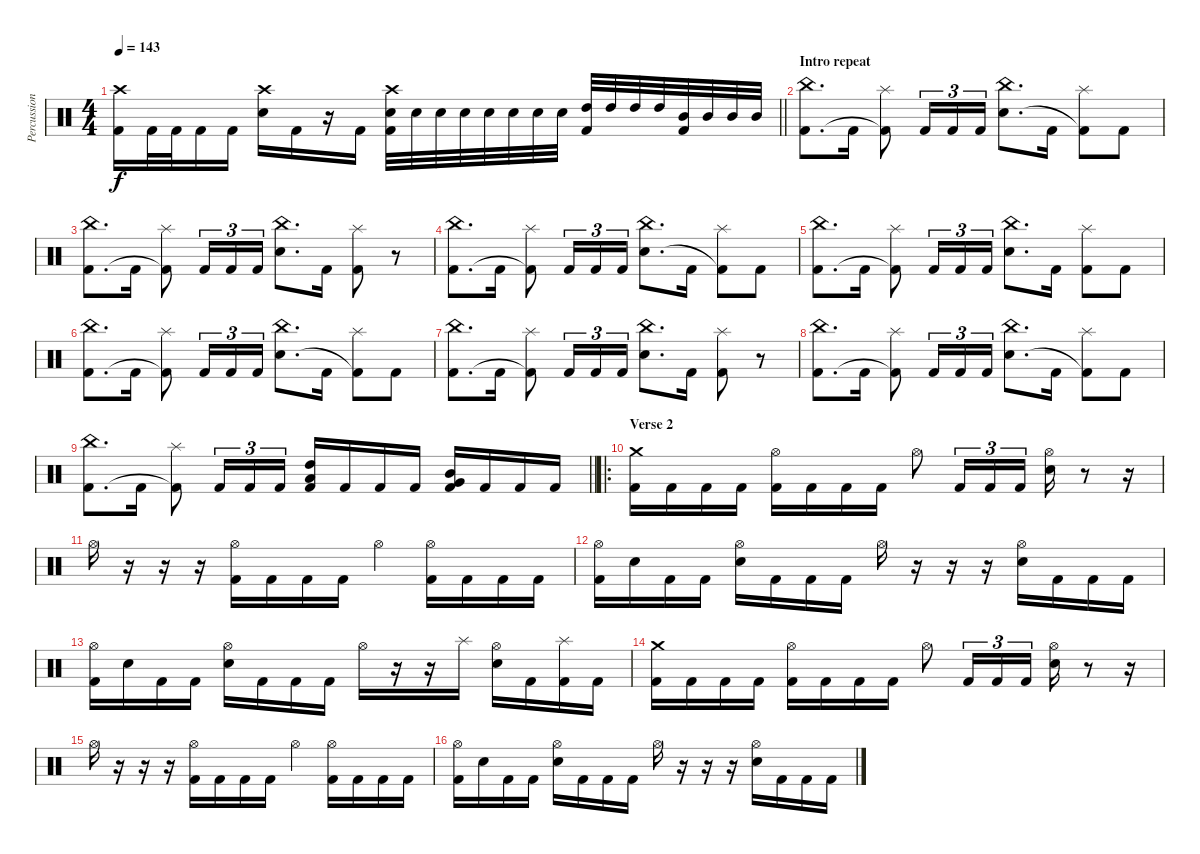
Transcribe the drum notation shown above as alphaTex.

\track ("Percussion" "Percussion") {instrument percussion}
\staff {score}
\articulation defaults
\ts (4 4)
\tempo 143
\clef neutral
\barLineRight lightlight
\ks c
("Crash high (hit)" "Kick (hit) 2").16{dy f} "Kick (hit) 2".32 "Kick (hit) 2".32 "Kick (hit) 2".16 "Kick (hit) 2".16 ("Crash high (hit)" "Electric Snare (hit)").16 "Kick (hit) 2".16 r.16 "Kick (hit) 2".16 ("Crash high (hit)" "Electric Snare (hit)" "Kick (hit) 2").32 "Electric Snare (hit)".32 "Electric Snare (hit)".32 "Electric Snare (hit)".32 "Electric Snare (hit)".32 "Electric Snare (hit)".32 "Electric Snare (hit)".32 "Electric Snare (hit)".32 ("High Tom (hit)" "Kick (hit) 2").32 "High Tom (hit)".32 "High Tom (hit)".32 "High Tom (hit)".32 ("Mid Tom (hit)" "Kick (hit) 2").32 "Mid Tom (hit)".32 "Mid Tom (hit)".32 "Mid Tom (hit)".32 |
\section ("" "Intro repeat")
("China (hit)" "Kick (hit) 2").8{d} "Kick (hit) 2".16 ("Splash (hit)" "Kick (hit) 2"{t}).8 "Kick (hit) 2".16{tu (3 2)} "Kick (hit) 2".16{tu (3 2)} "Kick (hit) 2".16{tu (3 2)} ("China (hit)" "Electric Snare (hit)").8{d} "Kick (hit) 2".16 ("Splash (hit)" "Kick (hit) 2"{t}).8 "Kick (hit) 2".8 |
("China (hit)" "Kick (hit) 2").8{d} "Kick (hit) 2".16 ("Splash (hit)" "Kick (hit) 2"{t}).8 "Kick (hit) 2".16{tu (3 2)} "Kick (hit) 2".16{tu (3 2)} "Kick (hit) 2".16{tu (3 2)} ("China (hit)" "Electric Snare (hit)").8{d} "Kick (hit) 2".16 ("Splash (hit)" "Kick (hit) 2").8 r.8 |
("China (hit)" "Kick (hit) 2").8{d} "Kick (hit) 2".16 ("Splash (hit)" "Kick (hit) 2"{t}).8 "Kick (hit) 2".16{tu (3 2)} "Kick (hit) 2".16{tu (3 2)} "Kick (hit) 2".16{tu (3 2)} ("China (hit)" "Electric Snare (hit)").8{d} "Kick (hit) 2".16 ("Splash (hit)" "Kick (hit) 2"{t}).8 "Kick (hit) 2".8 |
("China (hit)" "Kick (hit) 2").8{d} "Kick (hit) 2".16 ("Splash (hit)" "Kick (hit) 2"{t}).8 "Kick (hit) 2".16{tu (3 2)} "Kick (hit) 2".16{tu (3 2)} "Kick (hit) 2".16{tu (3 2)} ("China (hit)" "Electric Snare (hit)").8{d} "Kick (hit) 2".16 ("Splash (hit)" "Kick (hit) 2").8 "Kick (hit) 2".8 |
("China (hit)" "Kick (hit) 2").8{d} "Kick (hit) 2".16 ("Splash (hit)" "Kick (hit) 2"{t}).8 "Kick (hit) 2".16{tu (3 2)} "Kick (hit) 2".16{tu (3 2)} "Kick (hit) 2".16{tu (3 2)} ("China (hit)" "Electric Snare (hit)").8{d} "Kick (hit) 2".16 ("Splash (hit)" "Kick (hit) 2"{t}).8 "Kick (hit) 2".8 |
("China (hit)" "Kick (hit) 2").8{d} "Kick (hit) 2".16 ("Splash (hit)" "Kick (hit) 2"{t}).8 "Kick (hit) 2".16{tu (3 2)} "Kick (hit) 2".16{tu (3 2)} "Kick (hit) 2".16{tu (3 2)} ("China (hit)" "Electric Snare (hit)").8{d} "Kick (hit) 2".16 ("Splash (hit)" "Kick (hit) 2").8 r.8 |
("China (hit)" "Kick (hit) 2").8{d} "Kick (hit) 2".16 ("Splash (hit)" "Kick (hit) 2"{t}).8 "Kick (hit) 2".16{tu (3 2)} "Kick (hit) 2".16{tu (3 2)} "Kick (hit) 2".16{tu (3 2)} ("China (hit)" "Electric Snare (hit)").8{d} "Kick (hit) 2".16 ("Splash (hit)" "Kick (hit) 2"{t}).8 "Kick (hit) 2".8 |
\barLineRight lightlight
("China (hit)" "Kick (hit) 2").8{d} "Kick (hit) 2".16 ("Splash (hit)" "Kick (hit) 2"{t}).8 "Kick (hit) 2".16{tu (3 2)} "Kick (hit) 2".16{tu (3 2)} "Kick (hit) 2".16{tu (3 2)} ("High Tom (hit)" "Low Tom (hit)" "Kick (hit) 2").16 "Kick (hit) 2".16 "Kick (hit) 2".16 "Kick (hit) 2".16 ("Mid Tom (hit)" "Very Low Tom (hit)" "Kick (hit) 2").16 "Kick (hit) 2".16 "Kick (hit) 2".16 "Kick (hit) 2".16 |
\ro
\section ("" "Verse 2")
("Crash medium (hit)" "Kick (hit) 2").16 "Kick (hit) 2".16 "Kick (hit) 2".16 "Kick (hit) 2".16 ("Hi-Hat (open)" "Kick (hit) 2").16 "Kick (hit) 2".16 "Kick (hit) 2".16 "Kick (hit) 2".16 "Hi-Hat (open)".8 "Kick (hit) 2".16{tu (3 2)} "Kick (hit) 2".16{tu (3 2)} "Kick (hit) 2".16{tu (3 2)} ("Hi-Hat (open)" "Electric Snare (hit)").16 r.8 r.16 |
"Hi-Hat (open)".16 r.16 r.16 r.16 ("Hi-Hat (open)" "Kick (hit) 2").16 "Kick (hit) 2".16 "Kick (hit) 2".16 "Kick (hit) 2".16 "Hi-Hat (open)".4 ("Hi-Hat (open)" "Kick (hit) 2").16 "Kick (hit) 2".16 "Kick (hit) 2".16 "Kick (hit) 2".16 |
("Hi-Hat (open)" "Kick (hit) 2").16 "Electric Snare (hit)".16 "Kick (hit) 2".16 "Kick (hit) 2".16 ("Hi-Hat (open)" "Electric Snare (hit)").16 "Kick (hit) 2".16 "Kick (hit) 2".16 "Kick (hit) 2".16 "Hi-Hat (open)".16 r.16 r.16 r.16 ("Hi-Hat (open)" "Electric Snare (hit)").16 "Kick (hit) 2".16 "Kick (hit) 2".16 "Kick (hit) 2".16 |
("Hi-Hat (open)" "Kick (hit) 2").16 "Electric Snare (hit)".16 "Kick (hit) 2".16 "Kick (hit) 2".16 ("Hi-Hat (open)" "Electric Snare (hit)").16 "Kick (hit) 2".16 "Kick (hit) 2".16 "Kick (hit) 2".16 "Hi-Hat (open)".16 r.16 r.16 "Splash (hit)".16 ("Hi-Hat (open)" "Electric Snare (hit)").16 "Kick (hit) 2".16 ("Splash (hit)" "Kick (hit) 2").16 "Kick (hit) 2".16 |
("Crash medium (hit)" "Kick (hit) 2").16 "Kick (hit) 2".16 "Kick (hit) 2".16 "Kick (hit) 2".16 ("Hi-Hat (open)" "Kick (hit) 2").16 "Kick (hit) 2".16 "Kick (hit) 2".16 "Kick (hit) 2".16 "Hi-Hat (open)".8 "Kick (hit) 2".16{tu (3 2)} "Kick (hit) 2".16{tu (3 2)} "Kick (hit) 2".16{tu (3 2)} ("Hi-Hat (open)" "Electric Snare (hit)").16 r.8 r.16 |
"Hi-Hat (open)".16 r.16 r.16 r.16 ("Hi-Hat (open)" "Kick (hit) 2").16 "Kick (hit) 2".16 "Kick (hit) 2".16 "Kick (hit) 2".16 "Hi-Hat (open)".4 ("Hi-Hat (open)" "Kick (hit) 2").16 "Kick (hit) 2".16 "Kick (hit) 2".16 "Kick (hit) 2".16 |
("Hi-Hat (open)" "Kick (hit) 2").16 "Electric Snare (hit)".16 "Kick (hit) 2".16 "Kick (hit) 2".16 ("Hi-Hat (open)" "Electric Snare (hit)").16 "Kick (hit) 2".16 "Kick (hit) 2".16 "Kick (hit) 2".16 "Hi-Hat (open)".16 r.16 r.16 r.16 ("Hi-Hat (open)" "Electric Snare (hit)").16 "Kick (hit) 2".16 "Kick (hit) 2".16 "Kick (hit) 2".16
